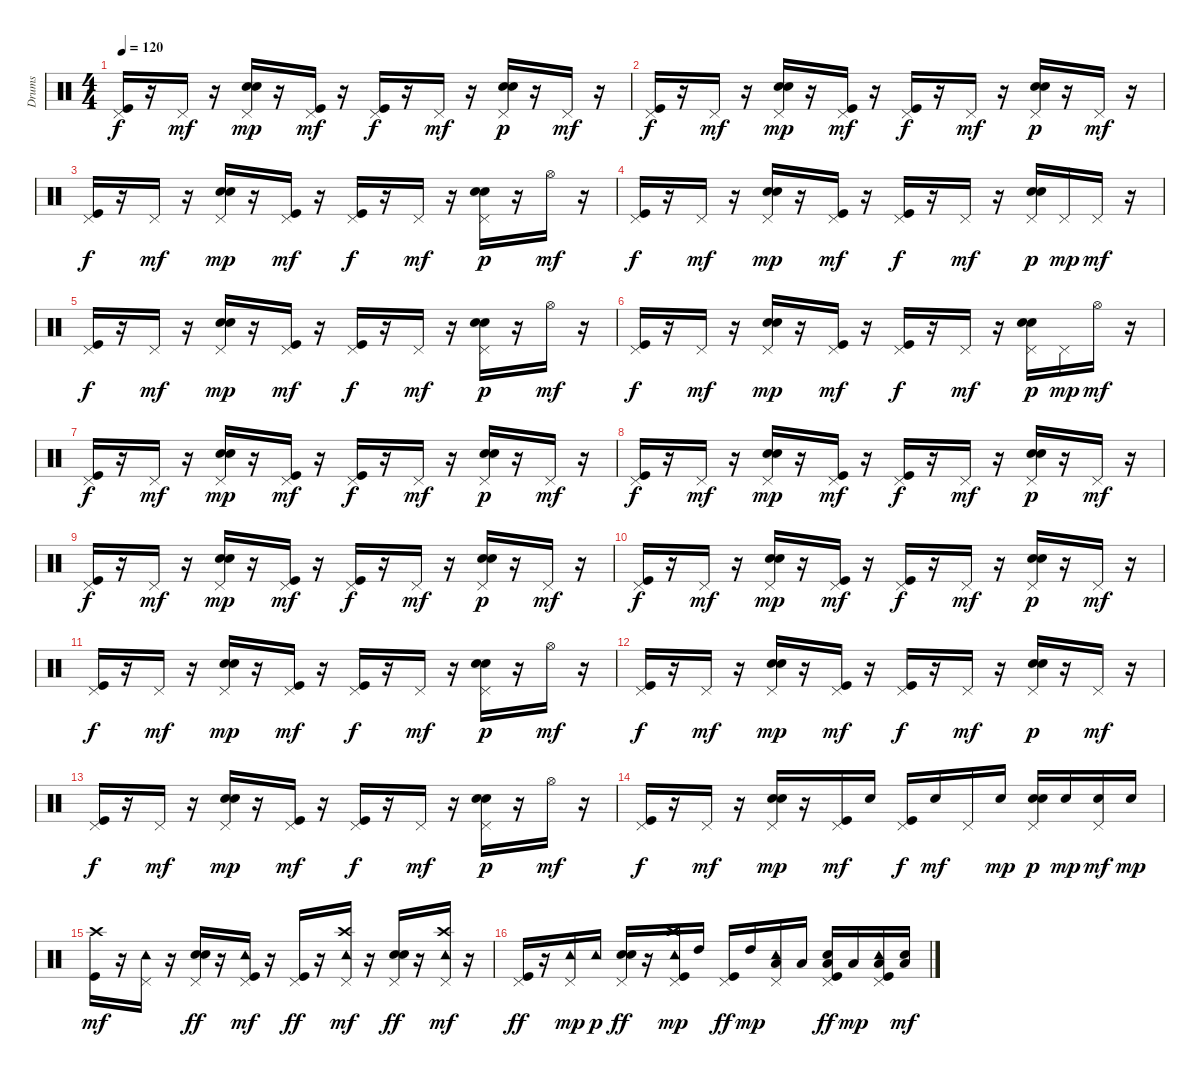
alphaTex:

\track ("Drums   " "Drums   ") {instrument percussion}
\staff {score}
\articulation defaults
\ts (4 4)
\tempo 120
\clef neutral
\ks c
("Kick (hit)" "Pedal Hi-Hat (hit)").16{dy f} r.16 "Pedal Hi-Hat (hit)".16{dy mf} r.16 ("Electric Snare (hit)" "Pedal Hi-Hat (hit)" "Hand Clap (hit)").16{dy mp} r.16 ("Kick (hit)" "Pedal Hi-Hat (hit)").16{dy mf} r.16 ("Kick (hit)" "Pedal Hi-Hat (hit)").16{dy f} r.16 "Pedal Hi-Hat (hit)".16{dy mf} r.16 ("Electric Snare (hit)" "Pedal Hi-Hat (hit)" "Hand Clap (hit)").16{dy p} r.16 "Pedal Hi-Hat (hit)".16{dy mf} r.16 |
("Kick (hit)" "Pedal Hi-Hat (hit)").16{dy f} r.16 "Pedal Hi-Hat (hit)".16{dy mf} r.16 ("Electric Snare (hit)" "Pedal Hi-Hat (hit)" "Hand Clap (hit)").16{dy mp} r.16 ("Kick (hit)" "Pedal Hi-Hat (hit)").16{dy mf} r.16 ("Kick (hit)" "Pedal Hi-Hat (hit)").16{dy f} r.16 "Pedal Hi-Hat (hit)".16{dy mf} r.16 ("Electric Snare (hit)" "Pedal Hi-Hat (hit)" "Hand Clap (hit)").16{dy p} r.16 "Pedal Hi-Hat (hit)".16{dy mf} r.16 |
("Kick (hit)" "Pedal Hi-Hat (hit)").16{dy f} r.16 "Pedal Hi-Hat (hit)".16{dy mf} r.16 ("Electric Snare (hit)" "Pedal Hi-Hat (hit)" "Hand Clap (hit)").16{dy mp} r.16 ("Kick (hit)" "Pedal Hi-Hat (hit)").16{dy mf} r.16 ("Kick (hit)" "Pedal Hi-Hat (hit)").16{dy f} r.16 "Pedal Hi-Hat (hit)".16{dy mf} r.16 ("Electric Snare (hit)" "Pedal Hi-Hat (hit)" "Hand Clap (hit)").16{dy p} r.16 "Hi-Hat (open)".16{dy mf} r.16 |
("Kick (hit)" "Pedal Hi-Hat (hit)").16{dy f} r.16 "Pedal Hi-Hat (hit)".16{dy mf} r.16 ("Electric Snare (hit)" "Pedal Hi-Hat (hit)" "Hand Clap (hit)").16{dy mp} r.16 ("Kick (hit)" "Pedal Hi-Hat (hit)").16{dy mf} r.16 ("Kick (hit)" "Pedal Hi-Hat (hit)").16{dy f} r.16 "Pedal Hi-Hat (hit)".16{dy mf} r.16 ("Electric Snare (hit)" "Pedal Hi-Hat (hit)" "Hand Clap (hit)").16{dy p} "Pedal Hi-Hat (hit)".16{dy mp} "Pedal Hi-Hat (hit)".16{dy mf} r.16 |
("Kick (hit)" "Pedal Hi-Hat (hit)").16{dy f} r.16 "Pedal Hi-Hat (hit)".16{dy mf} r.16 ("Electric Snare (hit)" "Pedal Hi-Hat (hit)" "Hand Clap (hit)").16{dy mp} r.16 ("Kick (hit)" "Pedal Hi-Hat (hit)").16{dy mf} r.16 ("Kick (hit)" "Pedal Hi-Hat (hit)").16{dy f} r.16 "Pedal Hi-Hat (hit)".16{dy mf} r.16 ("Electric Snare (hit)" "Pedal Hi-Hat (hit)" "Hand Clap (hit)").16{dy p} r.16 "Hi-Hat (open)".16{dy mf} r.16 |
("Kick (hit)" "Pedal Hi-Hat (hit)").16{dy f} r.16 "Pedal Hi-Hat (hit)".16{dy mf} r.16 ("Electric Snare (hit)" "Pedal Hi-Hat (hit)" "Hand Clap (hit)").16{dy mp} r.16 ("Kick (hit)" "Pedal Hi-Hat (hit)").16{dy mf} r.16 ("Kick (hit)" "Pedal Hi-Hat (hit)").16{dy f} r.16 "Pedal Hi-Hat (hit)".16{dy mf} r.16 ("Electric Snare (hit)" "Pedal Hi-Hat (hit)" "Hand Clap (hit)").16{dy p} "Pedal Hi-Hat (hit)".16{dy mp} "Hi-Hat (open)".16{dy mf} r.16 |
("Kick (hit)" "Pedal Hi-Hat (hit)").16{dy f} r.16 "Pedal Hi-Hat (hit)".16{dy mf} r.16 ("Electric Snare (hit)" "Pedal Hi-Hat (hit)" "Hand Clap (hit)").16{dy mp} r.16 ("Kick (hit)" "Pedal Hi-Hat (hit)").16{dy mf} r.16 ("Kick (hit)" "Pedal Hi-Hat (hit)").16{dy f} r.16 "Pedal Hi-Hat (hit)".16{dy mf} r.16 ("Electric Snare (hit)" "Pedal Hi-Hat (hit)" "Hand Clap (hit)").16{dy p} r.16 "Pedal Hi-Hat (hit)".16{dy mf} r.16 |
("Kick (hit)" "Pedal Hi-Hat (hit)").16{dy f} r.16 "Pedal Hi-Hat (hit)".16{dy mf} r.16 ("Electric Snare (hit)" "Pedal Hi-Hat (hit)" "Hand Clap (hit)").16{dy mp} r.16 ("Kick (hit)" "Pedal Hi-Hat (hit)").16{dy mf} r.16 ("Kick (hit)" "Pedal Hi-Hat (hit)").16{dy f} r.16 "Pedal Hi-Hat (hit)".16{dy mf} r.16 ("Electric Snare (hit)" "Pedal Hi-Hat (hit)" "Hand Clap (hit)").16{dy p} r.16 "Pedal Hi-Hat (hit)".16{dy mf} r.16 |
("Kick (hit)" "Pedal Hi-Hat (hit)").16{dy f} r.16 "Pedal Hi-Hat (hit)".16{dy mf} r.16 ("Electric Snare (hit)" "Pedal Hi-Hat (hit)" "Hand Clap (hit)").16{dy mp} r.16 ("Kick (hit)" "Pedal Hi-Hat (hit)").16{dy mf} r.16 ("Kick (hit)" "Pedal Hi-Hat (hit)").16{dy f} r.16 "Pedal Hi-Hat (hit)".16{dy mf} r.16 ("Electric Snare (hit)" "Pedal Hi-Hat (hit)" "Hand Clap (hit)").16{dy p} r.16 "Pedal Hi-Hat (hit)".16{dy mf} r.16 |
("Kick (hit)" "Pedal Hi-Hat (hit)").16{dy f} r.16 "Pedal Hi-Hat (hit)".16{dy mf} r.16 ("Electric Snare (hit)" "Pedal Hi-Hat (hit)" "Hand Clap (hit)").16{dy mp} r.16 ("Kick (hit)" "Pedal Hi-Hat (hit)").16{dy mf} r.16 ("Kick (hit)" "Pedal Hi-Hat (hit)").16{dy f} r.16 "Pedal Hi-Hat (hit)".16{dy mf} r.16 ("Electric Snare (hit)" "Pedal Hi-Hat (hit)" "Hand Clap (hit)").16{dy p} r.16 "Pedal Hi-Hat (hit)".16{dy mf} r.16 |
("Kick (hit)" "Pedal Hi-Hat (hit)").16{dy f} r.16 "Pedal Hi-Hat (hit)".16{dy mf} r.16 ("Electric Snare (hit)" "Pedal Hi-Hat (hit)" "Hand Clap (hit)").16{dy mp} r.16 ("Kick (hit)" "Pedal Hi-Hat (hit)").16{dy mf} r.16 ("Kick (hit)" "Pedal Hi-Hat (hit)").16{dy f} r.16 "Pedal Hi-Hat (hit)".16{dy mf} r.16 ("Electric Snare (hit)" "Pedal Hi-Hat (hit)" "Hand Clap (hit)").16{dy p} r.16 "Hi-Hat (open)".16{dy mf} r.16 |
("Kick (hit)" "Pedal Hi-Hat (hit)").16{dy f} r.16 "Pedal Hi-Hat (hit)".16{dy mf} r.16 ("Electric Snare (hit)" "Pedal Hi-Hat (hit)" "Hand Clap (hit)").16{dy mp} r.16 ("Kick (hit)" "Pedal Hi-Hat (hit)").16{dy mf} r.16 ("Kick (hit)" "Pedal Hi-Hat (hit)").16{dy f} r.16 "Pedal Hi-Hat (hit)".16{dy mf} r.16 ("Electric Snare (hit)" "Pedal Hi-Hat (hit)" "Hand Clap (hit)").16{dy p} r.16 "Pedal Hi-Hat (hit)".16{dy mf} r.16 |
("Kick (hit)" "Pedal Hi-Hat (hit)").16{dy f} r.16 "Pedal Hi-Hat (hit)".16{dy mf} r.16 ("Electric Snare (hit)" "Pedal Hi-Hat (hit)" "Hand Clap (hit)").16{dy mp} r.16 ("Kick (hit)" "Pedal Hi-Hat (hit)").16{dy mf} r.16 ("Kick (hit)" "Pedal Hi-Hat (hit)").16{dy f} r.16 "Pedal Hi-Hat (hit)".16{dy mf} r.16 ("Electric Snare (hit)" "Pedal Hi-Hat (hit)" "Hand Clap (hit)").16{dy p} r.16 "Hi-Hat (open)".16{dy mf} r.16 |
("Kick (hit)" "Pedal Hi-Hat (hit)").16{dy f} r.16 "Pedal Hi-Hat (hit)".16{dy mf} r.16 ("Electric Snare (hit)" "Pedal Hi-Hat (hit)" "Hand Clap (hit)").16{dy mp} r.16 ("Kick (hit)" "Pedal Hi-Hat (hit)").16{dy mf} "Electric Snare (hit)".16 ("Kick (hit)" "Pedal Hi-Hat (hit)").16{dy f} "Electric Snare (hit)".16{dy mf} "Pedal Hi-Hat (hit)".16 "Electric Snare (hit)".16{dy mp} ("Electric Snare (hit)" "Pedal Hi-Hat (hit)" "Hand Clap (hit)").16{dy p} "Electric Snare (hit)".16{dy mp} ("Electric Snare (hit)" "Pedal Hi-Hat (hit)").16{dy mf} "Electric Snare (hit)".16{dy mp} |
("Kick (hit)" "Crash high (hit)").16{dy mf} r.16 ("Pedal Hi-Hat (hit)" "Tambourine (hit)").16 r.16 ("Electric Snare (hit)" "Pedal Hi-Hat (hit)" "Hand Clap (hit)").16{dy ff} r.16 ("Kick (hit)" "Pedal Hi-Hat (hit)" "Tambourine (hit)").16{dy mf} r.16 ("Kick (hit)" "Pedal Hi-Hat (hit)").16{dy ff} r.16 ("Crash high (hit)" "Pedal Hi-Hat (hit)" "Tambourine (hit)").16{dy mf} r.16 ("Electric Snare (hit)" "Pedal Hi-Hat (hit)" "Hand Clap (hit)").16{dy ff} r.16 ("Crash high (hit)" "Pedal Hi-Hat (hit)" "Tambourine (hit)").16{dy mf} r.16 |
("Kick (hit)" "Pedal Hi-Hat (hit)").16{dy ff} r.16 ("Pedal Hi-Hat (hit)" "Tambourine (hit)").16{dy mp} "Tambourine (hit)".16{dy p} ("Electric Snare (hit)" "Pedal Hi-Hat (hit)" "Hand Clap (hit)").16{dy ff} r.16 ("Kick (hit)" "Crash high (hit)" "Pedal Hi-Hat (hit)" "Tambourine (hit)").16{dy mp} "High Tom (hit)".16 ("Kick (hit)" "Pedal Hi-Hat (hit)").16{dy ff} "High Tom (hit)".16{dy mp} ("Low Tom (hit)" "Pedal Hi-Hat (hit)" "Tambourine (hit)").16 "Low Tom (hit)".16 ("Kick (hit)" "Low Tom (hit)" "Pedal Hi-Hat (hit)" "Hand Clap (hit)").16{dy ff} "Low Tom (hit)".16{dy mp} ("Kick (hit)" "Low Floor Tom (hit)" "Pedal Hi-Hat (hit)" "Tambourine (hit)").16 ("Low Floor Tom (hit)" "Electric Snare (hit)").16{dy mf}
